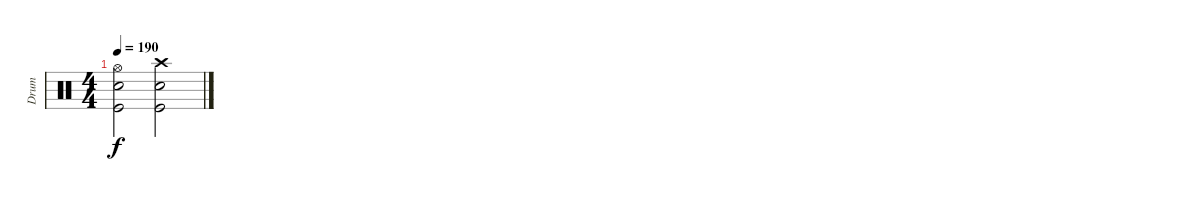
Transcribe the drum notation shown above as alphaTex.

\track ("Drum" "Drum") {instrument percussion}
\staff {score}
\articulation defaults
\ts (4 4)
\tempo 190
\clef neutral
\ks c
("Hi-Hat (open)" "Snare (hit) 2" "Kick (hit)").2{dy f} ("Crash high (hit)" "Snare (hit) 2" "Kick (hit)").2
